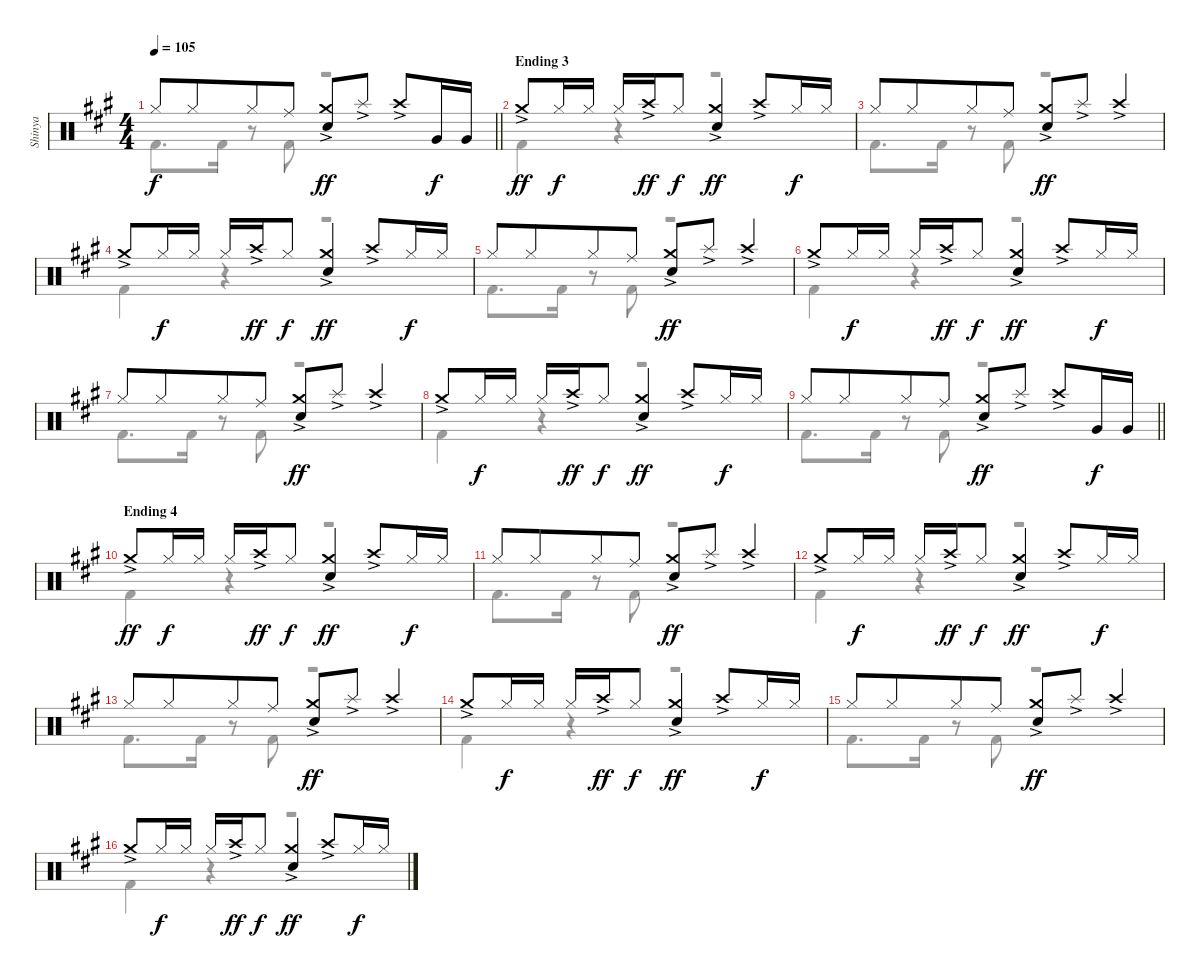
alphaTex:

\track ("Shinya" "Shinya") {instrument percussion}
\staff {score}
\articulation defaults
\voice
\ts (4 4)
\tempo 105
\clef neutral
\barLineRight lightlight
\ks f#minor "Hi-Hat (closed)".8{dy f} "Hi-Hat (closed)".8{beam merge} "Hi-Hat (closed)".8 "Ride (middle)".8
("Crash medium (hit)"{ac} "Snare (hit) 2").8{dy ff} "Splash (hit)"{ac}.8 "Crash high (hit)"{ac}.8 "Very Low Tom (hit)".16{dy f} "Very Low Tom (hit)".16 |
\section ("" "Ending 3")
"Crash medium (hit)"{ac}.8{dy ff} "Hi-Hat (closed)".16{dy f} "Hi-Hat (closed)".16 "Hi-Hat (closed)".16 "Crash high (hit)"{ac}.16{dy ff} "Hi-Hat (closed)".8{dy f} ("Crash medium (hit)"{ac} "Snare (hit) 2").4{dy ff} "Crash high (hit)"{ac}.8 "Hi-Hat (closed)".16{dy f} "Hi-Hat (closed)".16 |
"Hi-Hat (closed)".8 "Hi-Hat (closed)".8{beam merge} "Hi-Hat (closed)".8 "Ride (middle)".8 ("Crash medium (hit)"{ac} "Snare (hit) 2").8{dy ff} "Splash (hit)"{ac}.8 "Crash high (hit)"{ac}.4 |
"Crash medium (hit)"{ac}.8 "Hi-Hat (closed)".16{dy f} "Hi-Hat (closed)".16 "Hi-Hat (closed)".16 "Crash high (hit)"{ac}.16{dy ff} "Hi-Hat (closed)".8{dy f} ("Crash medium (hit)"{ac} "Snare (hit) 2").4{dy ff} "Crash high (hit)"{ac}.8 "Hi-Hat (closed)".16{dy f} "Hi-Hat (closed)".16 |
"Hi-Hat (closed)".8 "Hi-Hat (closed)".8{beam merge} "Hi-Hat (closed)".8 "Ride (middle)".8 ("Crash medium (hit)"{ac} "Snare (hit) 2").8{dy ff} "Splash (hit)"{ac}.8 "Crash high (hit)"{ac}.4 |
"Crash medium (hit)"{ac}.8{volume 11} "Hi-Hat (closed)".16{dy f} "Hi-Hat (closed)".16 "Hi-Hat (closed)".16 "Crash high (hit)"{ac}.16{dy ff} "Hi-Hat (closed)".8{dy f} ("Crash medium (hit)"{ac} "Snare (hit) 2").4{dy ff} "Crash high (hit)"{ac}.8 "Hi-Hat (closed)".16{dy f} "Hi-Hat (closed)".16 |
"Hi-Hat (closed)".8 "Hi-Hat (closed)".8{beam merge} "Hi-Hat (closed)".8 "Ride (middle)".8 ("Crash medium (hit)"{ac} "Snare (hit) 2").8{dy ff} "Splash (hit)"{ac}.8 "Crash high (hit)"{ac}.4 |
"Crash medium (hit)"{ac}.8 "Hi-Hat (closed)".16{dy f} "Hi-Hat (closed)".16 "Hi-Hat (closed)".16 "Crash high (hit)"{ac}.16{dy ff} "Hi-Hat (closed)".8{dy f} ("Crash medium (hit)"{ac} "Snare (hit) 2").4{dy ff} "Crash high (hit)"{ac}.8 "Hi-Hat (closed)".16{dy f} "Hi-Hat (closed)".16 |
\barLineRight lightlight "Hi-Hat (closed)".8 "Hi-Hat (closed)".8{beam merge} "Hi-Hat (closed)".8 "Ride (middle)".8
("Crash medium (hit)"{ac} "Snare (hit) 2").8{dy ff} "Splash (hit)"{ac}.8 "Crash high (hit)"{ac}.8 "Very Low Tom (hit)".16{dy f} "Very Low Tom (hit)".16 |
\section ("" "Ending 4")
"Crash medium (hit)"{ac}.8{dy ff volume 9} "Hi-Hat (closed)".16{dy f} "Hi-Hat (closed)".16 "Hi-Hat (closed)".16 "Crash high (hit)"{ac}.16{dy ff} "Hi-Hat (closed)".8{dy f} ("Crash medium (hit)"{ac} "Snare (hit) 2").4{dy ff} "Crash high (hit)"{ac}.8 "Hi-Hat (closed)".16{dy f} "Hi-Hat (closed)".16 |
"Hi-Hat (closed)".8 "Hi-Hat (closed)".8{beam merge} "Hi-Hat (closed)".8 "Ride (middle)".8 ("Crash medium (hit)"{ac} "Snare (hit) 2").8{dy ff} "Splash (hit)"{ac}.8 "Crash high (hit)"{ac}.4 |
"Crash medium (hit)"{ac}.8 "Hi-Hat (closed)".16{dy f} "Hi-Hat (closed)".16 "Hi-Hat (closed)".16 "Crash high (hit)"{ac}.16{dy ff} "Hi-Hat (closed)".8{dy f} ("Crash medium (hit)"{ac} "Snare (hit) 2").4{dy ff} "Crash high (hit)"{ac}.8 "Hi-Hat (closed)".16{dy f} "Hi-Hat (closed)".16 |
"Hi-Hat (closed)".8 "Hi-Hat (closed)".8{beam merge} "Hi-Hat (closed)".8 "Ride (middle)".8 ("Crash medium (hit)"{ac} "Snare (hit) 2").8{dy ff} "Splash (hit)"{ac}.8 "Crash high (hit)"{ac}.4 |
"Crash medium (hit)"{ac}.8{volume 6} "Hi-Hat (closed)".16{dy f} "Hi-Hat (closed)".16 "Hi-Hat (closed)".16 "Crash high (hit)"{ac}.16{dy ff} "Hi-Hat (closed)".8{dy f} ("Crash medium (hit)"{ac} "Snare (hit) 2").4{dy ff} "Crash high (hit)"{ac}.8 "Hi-Hat (closed)".16{dy f} "Hi-Hat (closed)".16 |
"Hi-Hat (closed)".8 "Hi-Hat (closed)".8{beam merge} "Hi-Hat (closed)".8 "Ride (middle)".8 ("Crash medium (hit)"{ac} "Snare (hit) 2").8{dy ff} "Splash (hit)"{ac}.8 "Crash high (hit)"{ac}.4 |
"Crash medium (hit)"{ac}.8 "Hi-Hat (closed)".16{dy f} "Hi-Hat (closed)".16 "Hi-Hat (closed)".16 "Crash high (hit)"{ac}.16{dy ff} "Hi-Hat (closed)".8{dy f} ("Crash medium (hit)"{ac} "Snare (hit) 2").4{dy ff} "Crash high (hit)"{ac}.8 "Hi-Hat (closed)".16{dy f} "Hi-Hat (closed)".16
\voice
\clef neutral
\ottava regular
\simile none
\barLineRight lightlight
\ks f#minor "Kick (hit) 2".8{d dy f} "Kick (hit) 2".16
r.8 "Kick (hit) 2".8 r.2 |
"Kick (hit) 2".4 r.4 r.2 |
"Kick (hit) 2".8{d} "Kick (hit) 2".16 r.8 "Kick (hit) 2".8 r.2 |
"Kick (hit) 2".4 r.4 r.2 |
"Kick (hit) 2".8{d} "Kick (hit) 2".16 r.8 "Kick (hit) 2".8 r.2 |
"Kick (hit) 2".4 r.4 r.2 |
"Kick (hit) 2".8{d} "Kick (hit) 2".16 r.8 "Kick (hit) 2".8 r.2 |
"Kick (hit) 2".4 r.4 r.2 |
\barLineRight lightlight "Kick (hit) 2".8{d} "Kick (hit) 2".16
r.8 "Kick (hit) 2".8 r.2 |
"Kick (hit) 2".4 r.4 r.2 |
"Kick (hit) 2".8{d} "Kick (hit) 2".16 r.8 "Kick (hit) 2".8 r.2 |
"Kick (hit) 2".4 r.4 r.2 |
"Kick (hit) 2".8{d} "Kick (hit) 2".16 r.8 "Kick (hit) 2".8 r.2 |
"Kick (hit) 2".4 r.4 r.2 |
"Kick (hit) 2".8{d} "Kick (hit) 2".16 r.8 "Kick (hit) 2".8 r.2 |
"Kick (hit) 2".4 r.4 r.2
